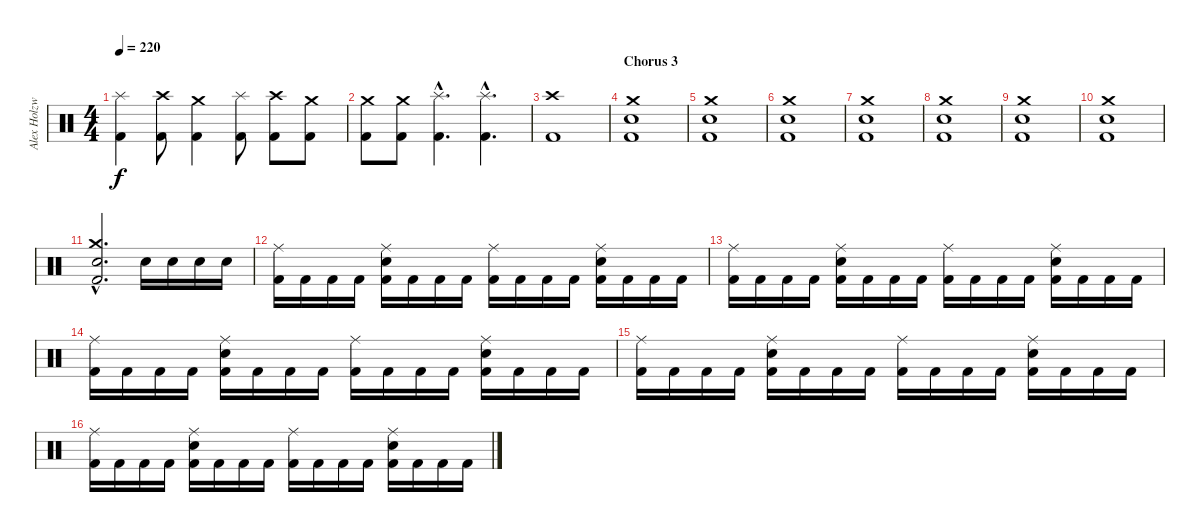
\track ("Alex Holzwarth" "Alex Holzw") {instrument percussion}
\staff {score}
\articulation defaults
\ts (4 4)
\tempo 220
\clef neutral
\ks c
("Splash (hit)" "Kick (hit) 2").4{dy f} ("Crash high (hit)" "Kick (hit) 2").8 ("Crash medium (hit)" "Kick (hit) 2").4 ("Splash (hit)" "Kick (hit) 2").8 ("Crash high (hit)" "Kick (hit) 2").8 ("Crash medium (hit)" "Kick (hit) 2").8 |
("Crash medium (hit)" "Kick (hit) 2").8 ("Kick (hit) 2" "Crash medium (hit)").8 ("Kick (hit) 2"{hac} "Splash (hit)"{hac}).4{d} ("Kick (hit) 2"{hac} "Splash (hit)"{hac}).4{d} |
("Kick (hit) 2" "Crash high (hit)").1 |
\section ("" "Chorus 3")
("Crash medium (hit)" "Snare (hit) 2" "Kick (hit) 2").1 |
("Crash medium (hit)" "Snare (hit) 2" "Kick (hit) 2").1 |
("Crash medium (hit)" "Snare (hit) 2" "Kick (hit) 2").1 |
("Crash medium (hit)" "Snare (hit) 2" "Kick (hit) 2").1 |
("Crash medium (hit)" "Snare (hit) 2" "Kick (hit) 2").1 |
("Crash medium (hit)" "Snare (hit) 2" "Kick (hit) 2").1 |
("Crash medium (hit)" "Snare (hit) 2" "Kick (hit) 2").1 |
("Crash medium (hit)"{hac} "Snare (hit) 2"{hac} "Kick (hit) 2"{hac}).2{d} "Snare (hit) 2".16 "Snare (hit) 2".16 "Snare (hit) 2".16 "Snare (hit) 2".16 |
("Ride (middle)" "Kick (hit) 2").16 "Kick (hit) 2".16 "Kick (hit) 2".16 "Kick (hit) 2".16 ("Ride (middle)" "Snare (hit) 2" "Kick (hit) 2").16 "Kick (hit) 2".16 "Kick (hit) 2".16 "Kick (hit) 2".16 ("Ride (middle)" "Kick (hit) 2").16 "Kick (hit) 2".16 "Kick (hit) 2".16 "Kick (hit) 2".16 ("Ride (middle)" "Snare (hit) 2" "Kick (hit) 2").16 "Kick (hit) 2".16 "Kick (hit) 2".16 "Kick (hit) 2".16 |
("Ride (middle)" "Kick (hit) 2").16 "Kick (hit) 2".16 "Kick (hit) 2".16 "Kick (hit) 2".16 ("Ride (middle)" "Snare (hit) 2" "Kick (hit) 2").16 "Kick (hit) 2".16 "Kick (hit) 2".16 "Kick (hit) 2".16 ("Ride (middle)" "Kick (hit) 2").16 "Kick (hit) 2".16 "Kick (hit) 2".16 "Kick (hit) 2".16 ("Ride (middle)" "Snare (hit) 2" "Kick (hit) 2").16 "Kick (hit) 2".16 "Kick (hit) 2".16 "Kick (hit) 2".16 |
("Ride (middle)" "Kick (hit) 2").16 "Kick (hit) 2".16 "Kick (hit) 2".16 "Kick (hit) 2".16 ("Ride (middle)" "Snare (hit) 2" "Kick (hit) 2").16 "Kick (hit) 2".16 "Kick (hit) 2".16 "Kick (hit) 2".16 ("Ride (middle)" "Kick (hit) 2").16 "Kick (hit) 2".16 "Kick (hit) 2".16 "Kick (hit) 2".16 ("Ride (middle)" "Snare (hit) 2" "Kick (hit) 2").16 "Kick (hit) 2".16 "Kick (hit) 2".16 "Kick (hit) 2".16 |
("Ride (middle)" "Kick (hit) 2").16 "Kick (hit) 2".16 "Kick (hit) 2".16 "Kick (hit) 2".16 ("Ride (middle)" "Snare (hit) 2" "Kick (hit) 2").16 "Kick (hit) 2".16 "Kick (hit) 2".16 "Kick (hit) 2".16 ("Ride (middle)" "Kick (hit) 2").16 "Kick (hit) 2".16 "Kick (hit) 2".16 "Kick (hit) 2".16 ("Ride (middle)" "Snare (hit) 2" "Kick (hit) 2").16 "Kick (hit) 2".16 "Kick (hit) 2".16 "Kick (hit) 2".16 |
("Ride (middle)" "Kick (hit) 2").16 "Kick (hit) 2".16 "Kick (hit) 2".16 "Kick (hit) 2".16 ("Ride (middle)" "Snare (hit) 2" "Kick (hit) 2").16 "Kick (hit) 2".16 "Kick (hit) 2".16 "Kick (hit) 2".16 ("Ride (middle)" "Kick (hit) 2").16 "Kick (hit) 2".16 "Kick (hit) 2".16 "Kick (hit) 2".16 ("Ride (middle)" "Snare (hit) 2" "Kick (hit) 2").16 "Kick (hit) 2".16 "Kick (hit) 2".16 "Kick (hit) 2".16
